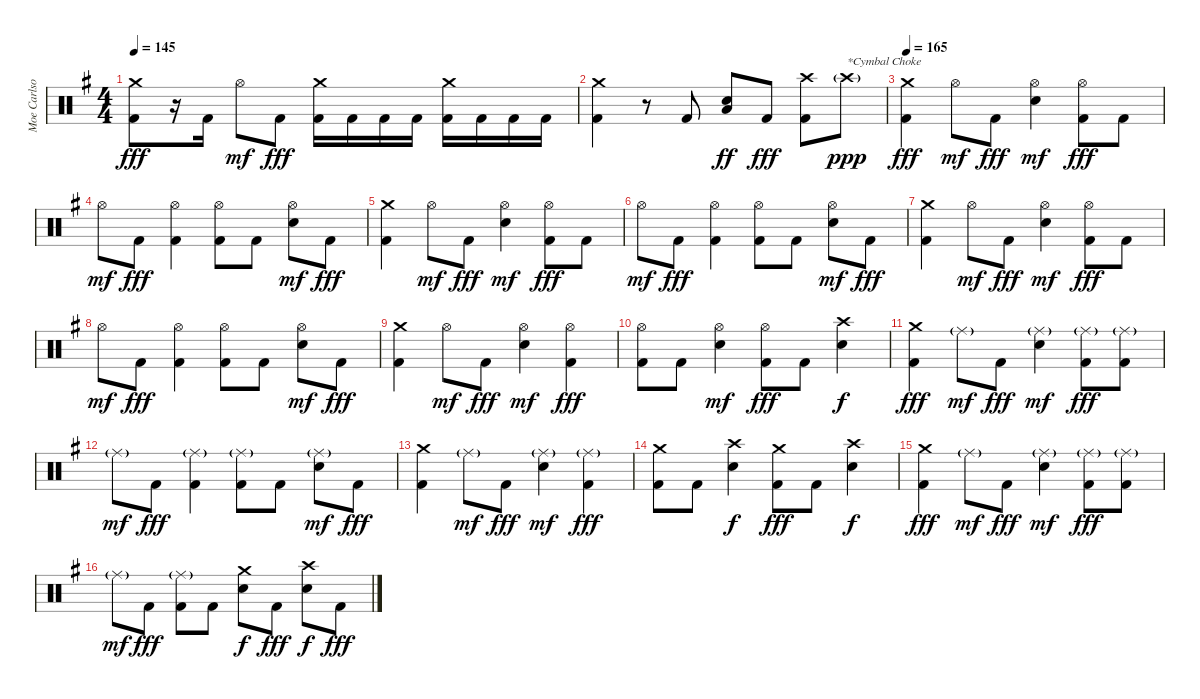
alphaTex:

\track ("Moe Carlson" "Moe Carlso") {instrument percussion}
\staff {score}
\articulation defaults
\ts (4 4)
\tempo 145
\clef neutral
\ks g
("Crash medium (hit)" "Kick (hit) 2").8{dy fff} r.16 "Kick (hit) 2".16 "Hi-Hat (open)".8{dy mf} "Kick (hit) 2".8{dy fff} ("Crash medium (hit)" "Kick (hit) 2").16 "Kick (hit) 2".16 "Kick (hit) 2".16 "Kick (hit) 2".16 ("Crash medium (hit)" "Kick (hit) 2").16 "Kick (hit) 2".16 "Kick (hit) 2".16 "Kick (hit) 2".16 |
("Crash medium (hit)" "Kick (hit) 2").4 r.8 "Kick (hit) 2".8 ("Electric Snare (hit)" "Low Floor Tom (hit)").8{dy ff} "Kick (hit) 2".8{dy fff} ("Crash high (hit)" "Kick (hit) 2").8 "Crash high (hit)"{g}.8{txt "*Cymbal Choke" dy ppp} |
\tempo 165
("Crash medium (hit)" "Kick (hit) 2").4{dy fff} "Hi-Hat (open)".8{dy mf} "Kick (hit) 2".8{dy fff} ("Hi-Hat (open)" "Electric Snare (hit)").4{dy mf} ("Hi-Hat (open)" "Kick (hit) 2").8{dy fff} "Kick (hit) 2".8 |
"Hi-Hat (open)".8{dy mf} "Kick (hit) 2".8{dy fff} ("Hi-Hat (open)" "Kick (hit) 2").4 ("Hi-Hat (open)" "Kick (hit) 2").8 "Kick (hit) 2".8 ("Hi-Hat (open)" "Electric Snare (hit)").8{dy mf} "Kick (hit) 2".8{dy fff} |
("Crash medium (hit)" "Kick (hit) 2").4 "Hi-Hat (open)".8{dy mf} "Kick (hit) 2".8{dy fff} ("Hi-Hat (open)" "Electric Snare (hit)").4{dy mf} ("Hi-Hat (open)" "Kick (hit) 2").8{dy fff} "Kick (hit) 2".8 |
"Hi-Hat (open)".8{dy mf} "Kick (hit) 2".8{dy fff} ("Hi-Hat (open)" "Kick (hit) 2").4 ("Hi-Hat (open)" "Kick (hit) 2").8 "Kick (hit) 2".8 ("Hi-Hat (open)" "Electric Snare (hit)").8{dy mf} "Kick (hit) 2".8{dy fff} |
("Crash medium (hit)" "Kick (hit) 2").4 "Hi-Hat (open)".8{dy mf} "Kick (hit) 2".8{dy fff} ("Hi-Hat (open)" "Electric Snare (hit)").4{dy mf} ("Hi-Hat (open)" "Kick (hit) 2").8{dy fff} "Kick (hit) 2".8 |
"Hi-Hat (open)".8{dy mf} "Kick (hit) 2".8{dy fff} ("Hi-Hat (open)" "Kick (hit) 2").4 ("Hi-Hat (open)" "Kick (hit) 2").8 "Kick (hit) 2".8 ("Hi-Hat (open)" "Electric Snare (hit)").8{dy mf} "Kick (hit) 2".8{dy fff} |
("Crash medium (hit)" "Kick (hit) 2").4 "Hi-Hat (open)".8{dy mf} "Kick (hit) 2".8{dy fff} ("Hi-Hat (open)" "Electric Snare (hit)").4{dy mf} ("Hi-Hat (open)" "Kick (hit) 2").4{dy fff} |
("Hi-Hat (open)" "Kick (hit) 2").8 "Kick (hit) 2".8 ("Hi-Hat (open)" "Electric Snare (hit)").4{dy mf} ("Hi-Hat (open)" "Kick (hit) 2").8{dy fff} "Kick (hit) 2".8 ("Crash high (hit)" "Electric Snare (hit)").4{dy f} |
("Crash medium (hit)" "Kick (hit) 2").4{dy fff} "Ride (middle)"{g}.8{dy mf} "Kick (hit) 2".8{dy fff} ("Ride (middle)"{g} "Electric Snare (hit)").4{dy mf} ("Ride (middle)"{g} "Kick (hit) 2").8{dy fff} ("Ride (middle)"{g} "Kick (hit) 2").8 |
"Ride (middle)"{g}.8{dy mf} "Kick (hit) 2".8{dy fff} ("Ride (middle)"{g} "Kick (hit) 2").4 ("Ride (middle)"{g} "Kick (hit) 2").8 "Kick (hit) 2".8 ("Ride (middle)"{g} "Electric Snare (hit)").8{dy mf} "Kick (hit) 2".8{dy fff} |
("Crash medium (hit)" "Kick (hit) 2").4 "Ride (middle)"{g}.8{dy mf} "Kick (hit) 2".8{dy fff} ("Ride (middle)"{g} "Electric Snare (hit)").4{dy mf} ("Ride (middle)"{g} "Kick (hit) 2").4{dy fff} |
("Crash medium (hit)" "Kick (hit) 2").8 "Kick (hit) 2".8 ("Crash high (hit)" "Electric Snare (hit)").4{dy f} ("Crash medium (hit)" "Kick (hit) 2").8{dy fff} "Kick (hit) 2".8 ("Crash high (hit)" "Electric Snare (hit)").4{dy f} |
("Crash medium (hit)" "Kick (hit) 2").4{dy fff} "Ride (middle)"{g}.8{dy mf} "Kick (hit) 2".8{dy fff} ("Ride (middle)"{g} "Electric Snare (hit)").4{dy mf} ("Ride (middle)"{g} "Kick (hit) 2").8{dy fff} ("Ride (middle)"{g} "Kick (hit) 2").8 |
"Ride (middle)"{g}.8{dy mf} "Kick (hit) 2".8{dy fff} ("Ride (middle)"{g} "Kick (hit) 2").8 "Kick (hit) 2".8 ("Crash medium (hit)" "Electric Snare (hit)").8{dy f} "Kick (hit) 2".8{dy fff} ("Crash high (hit)" "Electric Snare (hit)").8{dy f} "Kick (hit) 2".8{dy fff}
